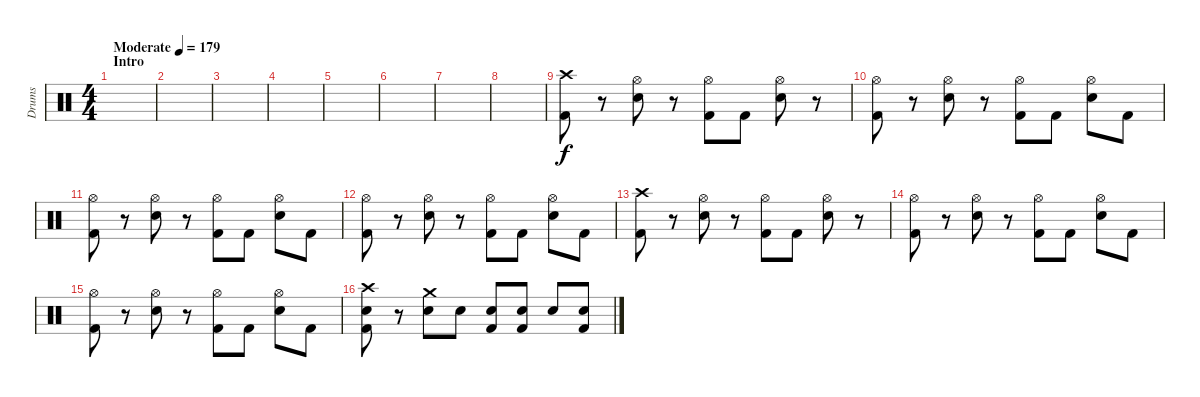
\track ("Drums" "Drums") {instrument percussion}
\staff {score}
\articulation defaults
\ts (4 4)
\section ("" "Intro")
\tempo (179 "Moderate")
\clef neutral
\ks c
|
|
|
|
|
|
|
|
("Crash high (hit)" "Kick (hit) 2").8 r.8 ("Hi-Hat (open)" "Snare (hit) 2").8 r.8 ("Hi-Hat (open)" "Kick (hit) 2").8 "Kick (hit) 2".8 ("Hi-Hat (open)" "Snare (hit) 2").8 r.8 |
("Hi-Hat (open)" "Kick (hit) 2").8 r.8 ("Hi-Hat (open)" "Snare (hit) 2").8 r.8 ("Hi-Hat (open)" "Kick (hit) 2").8 "Kick (hit) 2".8 ("Hi-Hat (open)" "Snare (hit) 2").8 "Kick (hit) 2".8 |
("Hi-Hat (open)" "Kick (hit) 2").8 r.8 ("Hi-Hat (open)" "Snare (hit) 2").8 r.8 ("Hi-Hat (open)" "Kick (hit) 2").8 "Kick (hit) 2".8 ("Hi-Hat (open)" "Snare (hit) 2").8 "Kick (hit) 2".8 |
("Hi-Hat (open)" "Kick (hit) 2").8 r.8 ("Hi-Hat (open)" "Snare (hit) 2").8 r.8 ("Hi-Hat (open)" "Kick (hit) 2").8 "Kick (hit) 2".8 ("Hi-Hat (open)" "Snare (hit) 2").8 "Kick (hit) 2".8 |
("Crash high (hit)" "Kick (hit) 2").8 r.8 ("Hi-Hat (open)" "Snare (hit) 2").8 r.8 ("Hi-Hat (open)" "Kick (hit) 2").8 "Kick (hit) 2".8 ("Hi-Hat (open)" "Snare (hit) 2").8 r.8 |
("Hi-Hat (open)" "Kick (hit) 2").8 r.8 ("Hi-Hat (open)" "Snare (hit) 2").8 r.8 ("Hi-Hat (open)" "Kick (hit) 2").8 "Kick (hit) 2".8 ("Hi-Hat (open)" "Snare (hit) 2").8 "Kick (hit) 2".8 |
("Hi-Hat (open)" "Kick (hit) 2").8 r.8 ("Hi-Hat (open)" "Snare (hit) 2").8 r.8 ("Hi-Hat (open)" "Kick (hit) 2").8 "Kick (hit) 2".8 ("Hi-Hat (open)" "Snare (hit) 2").8 "Kick (hit) 2".8 |
("Crash high (hit)" "Snare (hit) 2" "Kick (hit) 2").8 r.8 ("Crash medium (hit)" "Snare (hit) 2").8 "Snare (hit) 2".8 ("Snare (hit) 2" "Kick (hit) 2").8 ("Snare (hit) 2" "Kick (hit) 2").8 "Snare (hit) 2".8 ("Snare (hit) 2" "Kick (hit) 2").8
